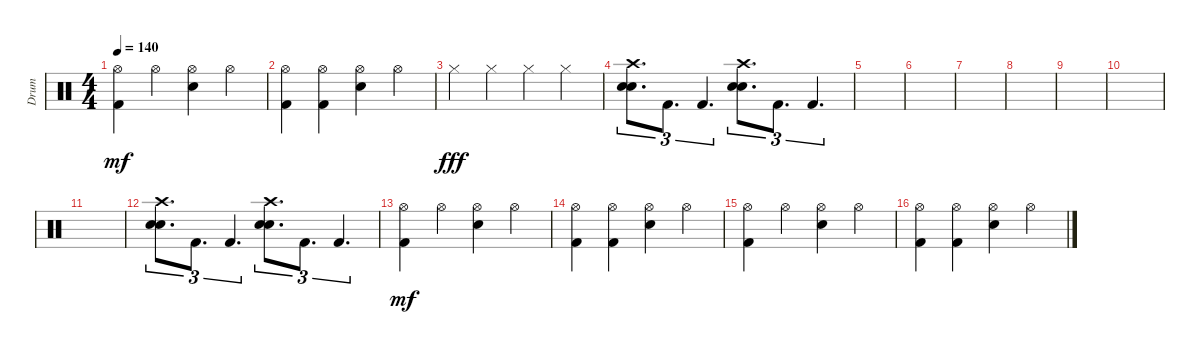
\track ("Drum" "Drum") {instrument percussion}
\staff {score}
\articulation defaults
\ts (4 4)
\tempo 140
\clef neutral
\ks c
("Hi-Hat (open)" "Kick (hit) 2").4{dy mf} "Hi-Hat (open)".4 ("Hi-Hat (open)" "Electric Snare (hit)").4 "Hi-Hat (open)".4 |
("Hi-Hat (open)" "Kick (hit) 2").4 ("Hi-Hat (open)" "Kick (hit) 2").4 ("Hi-Hat (open)" "Electric Snare (hit)").4 "Hi-Hat (open)".4 |
"Hi-Hat (closed)".4{dy fff} "Hi-Hat (closed)".4 "Hi-Hat (closed)".4 "Hi-Hat (closed)".4 |
("Electric Snare (hit)" "Electric Snare (hit)" "Crash high (hit)").8{d tu (3 2)} "Kick (hit) 2".8{d tu (3 2)} "Kick (hit) 2".4{d tu (3 2)} ("Electric Snare (hit)" "Electric Snare (hit)" "Crash high (hit)").8{d tu (3 2)} "Kick (hit) 2".8{d tu (3 2)} "Kick (hit) 2".4{d tu (3 2)} |
|
|
|
|
|
|
|
("Electric Snare (hit)" "Electric Snare (hit)" "Crash high (hit)").8{d tu (3 2)} "Kick (hit) 2".8{d tu (3 2)} "Kick (hit) 2".4{d tu (3 2)} ("Electric Snare (hit)" "Electric Snare (hit)" "Crash high (hit)").8{d tu (3 2)} "Kick (hit) 2".8{d tu (3 2)} "Kick (hit) 2".4{d tu (3 2)} |
("Hi-Hat (open)" "Kick (hit) 2").4{dy mf} "Hi-Hat (open)".4 ("Hi-Hat (open)" "Electric Snare (hit)").4 "Hi-Hat (open)".4 |
("Hi-Hat (open)" "Kick (hit) 2").4 ("Hi-Hat (open)" "Kick (hit) 2").4 ("Hi-Hat (open)" "Electric Snare (hit)").4 "Hi-Hat (open)".4 |
("Hi-Hat (open)" "Kick (hit) 2").4 "Hi-Hat (open)".4 ("Hi-Hat (open)" "Snare (hit) 2").4 "Hi-Hat (open)".4 |
("Hi-Hat (open)" "Kick (hit) 2").4 ("Hi-Hat (open)" "Kick (hit) 2").4 ("Hi-Hat (open)" "Electric Snare (hit)").4 "Hi-Hat (open)".4
